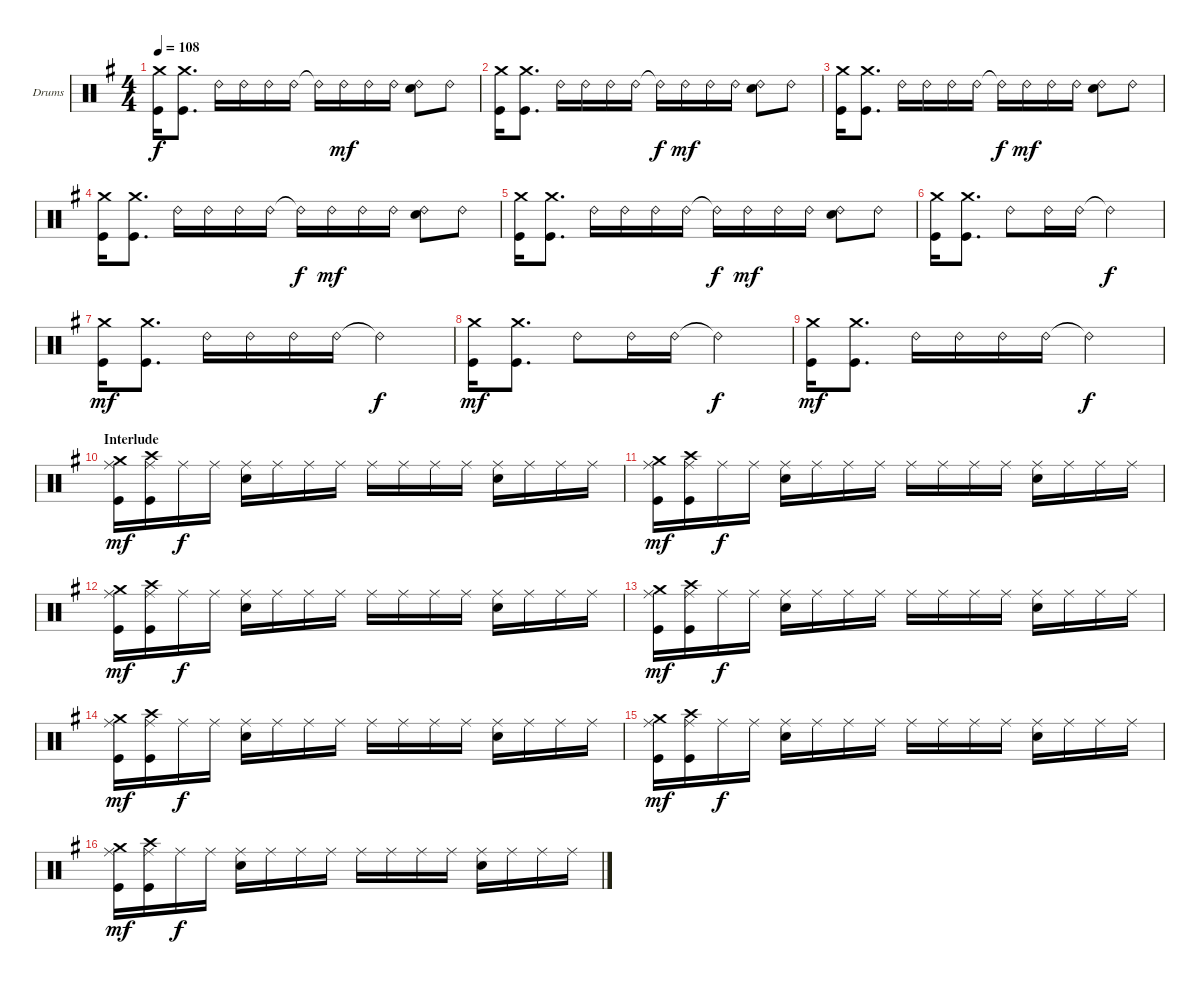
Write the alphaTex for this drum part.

\defaultSystemsLayout 4
\bracketExtendMode groupsimilarinstruments
\firstSystemTrackNameOrientation horizontal
\otherSystemsTrackNameOrientation horizontal
\track ("Drum" "Drums") {instrument percussion}
\staff {score}
\articulation defaults
\ts (4 4)
\tempo 108
\clef neutral
\scale
1.04288
\ks g
("Crash medium (hit)" "Kick (hit)").16{dy f} ("Crash medium (hit)" "Kick (hit)").8{d} "Ride (bell) 2".16 "Ride (bell) 2".16 "Ride (bell) 2".16 "Ride (bell) 2".16 "Ride (bell) 2"{t}.16 "Ride (bell) 2".16{dy mf} "Ride (bell) 2".16 "Ride (bell) 2".16 ("Ride (bell) 2" "Snare (hit) 2").8 "Ride (bell) 2".8 |
\scale
0.957125 ("Crash medium (hit)" "Kick (hit)").16 ("Crash medium (hit)" "Kick (hit)").8{d} "Ride (bell) 2".16 "Ride (bell) 2".16 "Ride (bell) 2".16 "Ride (bell) 2".16 "Ride (bell) 2"{t}.16{dy f} "Ride (bell) 2".16{dy mf} "Ride (bell) 2".16 "Ride (bell) 2".16 ("Ride (bell) 2" "Snare (hit) 2").8 "Ride (bell) 2".8 |
\scale
1.04288 ("Crash medium (hit)" "Kick (hit)").16 ("Crash medium (hit)" "Kick (hit)").8{d} "Ride (bell) 2".16 "Ride (bell) 2".16 "Ride (bell) 2".16 "Ride (bell) 2".16 "Ride (bell) 2"{t}.16{dy f} "Ride (bell) 2".16{dy mf} "Ride (bell) 2".16 "Ride (bell) 2".16 ("Ride (bell) 2" "Snare (hit) 2").8 "Ride (bell) 2".8 |
\scale
0.957125 ("Crash medium (hit)" "Kick (hit)").16 ("Crash medium (hit)" "Kick (hit)").8{d} "Ride (bell) 2".16 "Ride (bell) 2".16 "Ride (bell) 2".16 "Ride (bell) 2".16 "Ride (bell) 2"{t}.16{dy f} "Ride (bell) 2".16{dy mf} "Ride (bell) 2".16 "Ride (bell) 2".16 ("Ride (bell) 2" "Snare (hit) 2").8 "Ride (bell) 2".8 |
\scale
1.04288 ("Crash medium (hit)" "Kick (hit)").16 ("Crash medium (hit)" "Kick (hit)").8{d} "Ride (bell) 2".16 "Ride (bell) 2".16 "Ride (bell) 2".16 "Ride (bell) 2".16 "Ride (bell) 2"{t}.16{dy f} "Ride (bell) 2".16{dy mf} "Ride (bell) 2".16 "Ride (bell) 2".16 ("Ride (bell) 2" "Snare (hit) 2").8 "Ride (bell) 2".8 |
\scale
0.957125 ("Crash medium (hit)" "Kick (hit)").16 ("Crash medium (hit)" "Kick (hit)").8{d} "Ride (bell) 2".8 "Ride (bell) 2".16 "Ride (bell) 2".16 "Ride (bell) 2"{t}.2{dy f} |
\scale
1.04288 ("Crash medium (hit)" "Kick (hit)").16{dy mf} ("Crash medium (hit)" "Kick (hit)").8{d} "Ride (bell) 2".16 "Ride (bell) 2".16 "Ride (bell) 2".16 "Ride (bell) 2".16 "Ride (bell) 2"{t}.2{dy f} |
\scale
0.957125 ("Crash medium (hit)" "Kick (hit)").16{dy mf} ("Crash medium (hit)" "Kick (hit)").8{d} "Ride (bell) 2".8 "Ride (bell) 2".16 "Ride (bell) 2".16 "Ride (bell) 2"{t}.2{dy f} |
\scale
1.04288 ("Crash medium (hit)" "Kick (hit)").16{dy mf} ("Crash medium (hit)" "Kick (hit)").8{d} "Ride (bell) 2".16 "Ride (bell) 2".16 "Ride (bell) 2".16 "Ride (bell) 2".16 "Ride (bell) 2"{t}.2{dy f} |
\section ("" "Interlude")
\scale
0.957125 ("Crash medium (hit)" "Ride (middle)" "Kick (hit)").16{dy mf} ("Crash high (hit)" "Ride (middle)" "Kick (hit)").16 "Ride (middle)".16{dy f} "Ride (middle)".16 ("Ride (middle)" "Snare (hit) 2").16 "Ride (middle)".16 "Ride (middle)".16 "Ride (middle)".16 "Ride (middle)".16 "Ride (middle)".16 "Ride (middle)".16 "Ride (middle)".16 ("Ride (middle)" "Snare (hit) 2").16 "Ride (middle)".16 "Ride (middle)".16 "Ride (middle)".16 |
\scale
1.04288 ("Crash medium (hit)" "Ride (middle)" "Kick (hit)").16{dy mf} ("Crash high (hit)" "Ride (middle)" "Kick (hit)").16 "Ride (middle)".16{dy f} "Ride (middle)".16 ("Ride (middle)" "Snare (hit) 2").16 "Ride (middle)".16 "Ride (middle)".16 "Ride (middle)".16 "Ride (middle)".16 "Ride (middle)".16 "Ride (middle)".16 "Ride (middle)".16 ("Ride (middle)" "Snare (hit) 2").16 "Ride (middle)".16 "Ride (middle)".16 "Ride (middle)".16 |
\scale
0.957125 ("Crash medium (hit)" "Ride (middle)" "Kick (hit)").16{dy mf} ("Crash high (hit)" "Ride (middle)" "Kick (hit)").16 "Ride (middle)".16{dy f} "Ride (middle)".16 ("Ride (middle)" "Snare (hit) 2").16 "Ride (middle)".16 "Ride (middle)".16 "Ride (middle)".16 "Ride (middle)".16 "Ride (middle)".16 "Ride (middle)".16 "Ride (middle)".16 ("Ride (middle)" "Snare (hit) 2").16 "Ride (middle)".16 "Ride (middle)".16 "Ride (middle)".16 |
\scale
1.04288 ("Crash medium (hit)" "Ride (middle)" "Kick (hit)").16{dy mf} ("Crash high (hit)" "Ride (middle)" "Kick (hit)").16 "Ride (middle)".16{dy f} "Ride (middle)".16 ("Ride (middle)" "Snare (hit) 2").16 "Ride (middle)".16 "Ride (middle)".16 "Ride (middle)".16 "Ride (middle)".16 "Ride (middle)".16 "Ride (middle)".16 "Ride (middle)".16 ("Ride (middle)" "Snare (hit) 2").16 "Ride (middle)".16 "Ride (middle)".16 "Ride (middle)".16 |
\scale
0.957125 ("Crash medium (hit)" "Ride (middle)" "Kick (hit)").16{dy mf} ("Crash high (hit)" "Ride (middle)" "Kick (hit)").16 "Ride (middle)".16{dy f} "Ride (middle)".16 ("Ride (middle)" "Snare (hit) 2").16 "Ride (middle)".16 "Ride (middle)".16 "Ride (middle)".16 "Ride (middle)".16 "Ride (middle)".16 "Ride (middle)".16 "Ride (middle)".16 ("Ride (middle)" "Snare (hit) 2").16 "Ride (middle)".16 "Ride (middle)".16 "Ride (middle)".16 |
\scale
1.04288 ("Crash medium (hit)" "Ride (middle)" "Kick (hit)").16{dy mf} ("Crash high (hit)" "Ride (middle)" "Kick (hit)").16 "Ride (middle)".16{dy f} "Ride (middle)".16 ("Ride (middle)" "Snare (hit) 2").16 "Ride (middle)".16 "Ride (middle)".16 "Ride (middle)".16 "Ride (middle)".16 "Ride (middle)".16 "Ride (middle)".16 "Ride (middle)".16 ("Ride (middle)" "Snare (hit) 2").16 "Ride (middle)".16 "Ride (middle)".16 "Ride (middle)".16 |
\scale
0.957125 ("Crash medium (hit)" "Ride (middle)" "Kick (hit)").16{dy mf} ("Crash high (hit)" "Ride (middle)" "Kick (hit)").16 "Ride (middle)".16{dy f} "Ride (middle)".16 ("Ride (middle)" "Snare (hit) 2").16 "Ride (middle)".16 "Ride (middle)".16 "Ride (middle)".16 "Ride (middle)".16 "Ride (middle)".16 "Ride (middle)".16 "Ride (middle)".16 ("Ride (middle)" "Snare (hit) 2").16 "Ride (middle)".16 "Ride (middle)".16 "Ride (middle)".16
